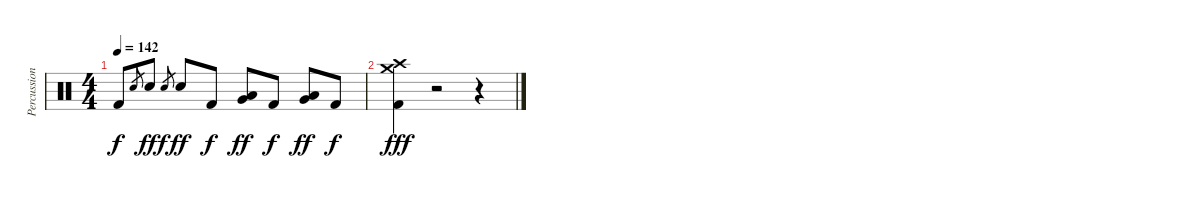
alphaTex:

\track ("Percussion" "Percussion") {instrument percussion}
\staff {score}
\articulation defaults
\ts (4 4)
\tempo 142
\clef neutral
\ks c "Kick (hit) 2".8{dy f} "Snare (hit) 2".8{gr} "Snare (hit) 2".8{dy ff} "Snare (hit) 2".8{gr dy f} "Snare (hit) 2".8{dy ff} "Kick (hit) 2".8{dy f}
("Low Tom (hit)" "Very Low Tom (hit)").8{dy ff} "Kick (hit) 2".8{dy f} ("Low Floor Tom (hit)" "Very Low Tom (hit)").8{dy ff} "Kick (hit) 2".8{dy f} |
("Crash high (hit)" "Crash medium (hit)" "Kick (hit) 2").4{dy fff} r.2 r.4
